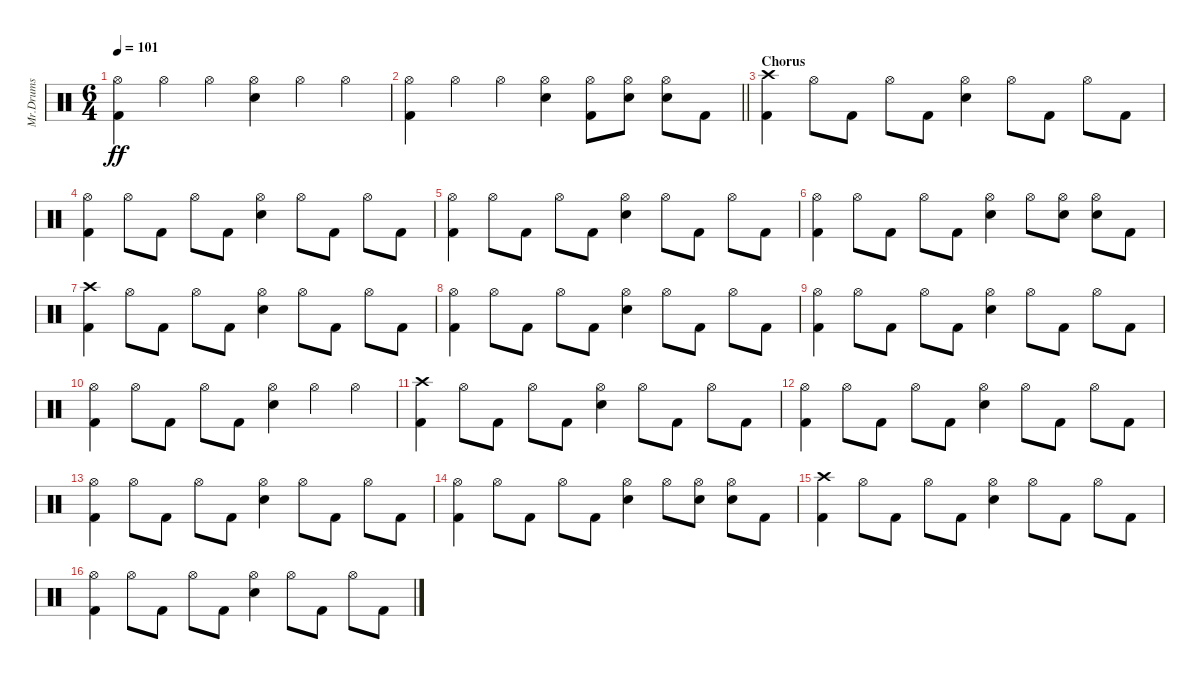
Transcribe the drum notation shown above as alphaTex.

\track ("Mr.Drums" "Mr.Drums") {instrument percussion}
\staff {score}
\articulation defaults
\ts (6 4)
\tempo 101
\clef neutral
\ks c
("Hi-Hat (open)" "Kick (hit) 2").4{dy ff} "Hi-Hat (open)".4 "Hi-Hat (open)".4 ("Hi-Hat (open)" "Electric Snare (hit)").4 "Hi-Hat (open)".4 "Hi-Hat (open)".4 |
\barLineRight lightlight
("Hi-Hat (open)" "Kick (hit) 2").4 "Hi-Hat (open)".4 "Hi-Hat (open)".4 ("Hi-Hat (open)" "Electric Snare (hit)").4 ("Hi-Hat (open)" "Kick (hit) 2").8 ("Hi-Hat (open)" "Electric Snare (hit)").8 ("Hi-Hat (open)" "Electric Snare (hit)").8 "Kick (hit) 2".8 |
\section ("" "Chorus")
("Crash high (hit)" "Kick (hit) 2").4 "Hi-Hat (open)".8 "Kick (hit) 2".8 "Hi-Hat (open)".8 "Kick (hit) 2".8 ("Hi-Hat (open)" "Electric Snare (hit)").4 "Hi-Hat (open)".8 "Kick (hit) 2".8 "Hi-Hat (open)".8 "Kick (hit) 2".8 |
("Hi-Hat (open)" "Kick (hit) 2").4 "Hi-Hat (open)".8 "Kick (hit) 2".8 "Hi-Hat (open)".8 "Kick (hit) 2".8 ("Hi-Hat (open)" "Electric Snare (hit)").4 "Hi-Hat (open)".8 "Kick (hit) 2".8 "Hi-Hat (open)".8 "Kick (hit) 2".8 |
("Hi-Hat (open)" "Kick (hit) 2").4 "Hi-Hat (open)".8 "Kick (hit) 2".8 "Hi-Hat (open)".8 "Kick (hit) 2".8 ("Hi-Hat (open)" "Electric Snare (hit)").4 "Hi-Hat (open)".8 "Kick (hit) 2".8 "Hi-Hat (open)".8 "Kick (hit) 2".8 |
("Hi-Hat (open)" "Kick (hit) 2").4 "Hi-Hat (open)".8 "Kick (hit) 2".8 "Hi-Hat (open)".8 "Kick (hit) 2".8 ("Hi-Hat (open)" "Electric Snare (hit)").4 "Hi-Hat (open)".8 ("Hi-Hat (open)" "Electric Snare (hit)").8 ("Hi-Hat (open)" "Electric Snare (hit)").8 "Kick (hit) 2".8 |
("Crash high (hit)" "Kick (hit) 2").4 "Hi-Hat (open)".8 "Kick (hit) 2".8 "Hi-Hat (open)".8 "Kick (hit) 2".8 ("Hi-Hat (open)" "Electric Snare (hit)").4 "Hi-Hat (open)".8 "Kick (hit) 2".8 "Hi-Hat (open)".8 "Kick (hit) 2".8 |
("Hi-Hat (open)" "Kick (hit) 2").4 "Hi-Hat (open)".8 "Kick (hit) 2".8 "Hi-Hat (open)".8 "Kick (hit) 2".8 ("Hi-Hat (open)" "Electric Snare (hit)").4 "Hi-Hat (open)".8 "Kick (hit) 2".8 "Hi-Hat (open)".8 "Kick (hit) 2".8 |
("Hi-Hat (open)" "Kick (hit) 2").4 "Hi-Hat (open)".8 "Kick (hit) 2".8 "Hi-Hat (open)".8 "Kick (hit) 2".8 ("Hi-Hat (open)" "Electric Snare (hit)").4 "Hi-Hat (open)".8 "Kick (hit) 2".8 "Hi-Hat (open)".8 "Kick (hit) 2".8 |
("Hi-Hat (open)" "Kick (hit) 2").4 "Hi-Hat (open)".8 "Kick (hit) 2".8 "Hi-Hat (open)".8 "Kick (hit) 2".8 ("Hi-Hat (open)" "Electric Snare (hit)").4 "Hi-Hat (open)".4 "Hi-Hat (open)".4 |
("Crash high (hit)" "Kick (hit) 2").4 "Hi-Hat (open)".8 "Kick (hit) 2".8 "Hi-Hat (open)".8 "Kick (hit) 2".8 ("Hi-Hat (open)" "Electric Snare (hit)").4 "Hi-Hat (open)".8 "Kick (hit) 2".8 "Hi-Hat (open)".8 "Kick (hit) 2".8 |
("Hi-Hat (open)" "Kick (hit) 2").4 "Hi-Hat (open)".8 "Kick (hit) 2".8 "Hi-Hat (open)".8 "Kick (hit) 2".8 ("Hi-Hat (open)" "Electric Snare (hit)").4 "Hi-Hat (open)".8 "Kick (hit) 2".8 "Hi-Hat (open)".8 "Kick (hit) 2".8 |
("Hi-Hat (open)" "Kick (hit) 2").4 "Hi-Hat (open)".8 "Kick (hit) 2".8 "Hi-Hat (open)".8 "Kick (hit) 2".8 ("Hi-Hat (open)" "Electric Snare (hit)").4 "Hi-Hat (open)".8 "Kick (hit) 2".8 "Hi-Hat (open)".8 "Kick (hit) 2".8 |
("Hi-Hat (open)" "Kick (hit) 2").4 "Hi-Hat (open)".8 "Kick (hit) 2".8 "Hi-Hat (open)".8 "Kick (hit) 2".8 ("Hi-Hat (open)" "Electric Snare (hit)").4 "Hi-Hat (open)".8 ("Hi-Hat (open)" "Electric Snare (hit)").8 ("Hi-Hat (open)" "Electric Snare (hit)").8 "Kick (hit) 2".8 |
("Crash high (hit)" "Kick (hit) 2").4 "Hi-Hat (open)".8 "Kick (hit) 2".8 "Hi-Hat (open)".8 "Kick (hit) 2".8 ("Hi-Hat (open)" "Electric Snare (hit)").4 "Hi-Hat (open)".8 "Kick (hit) 2".8 "Hi-Hat (open)".8 "Kick (hit) 2".8 |
("Hi-Hat (open)" "Kick (hit) 2").4 "Hi-Hat (open)".8 "Kick (hit) 2".8 "Hi-Hat (open)".8 "Kick (hit) 2".8 ("Hi-Hat (open)" "Electric Snare (hit)").4 "Hi-Hat (open)".8 "Kick (hit) 2".8 "Hi-Hat (open)".8 "Kick (hit) 2".8
